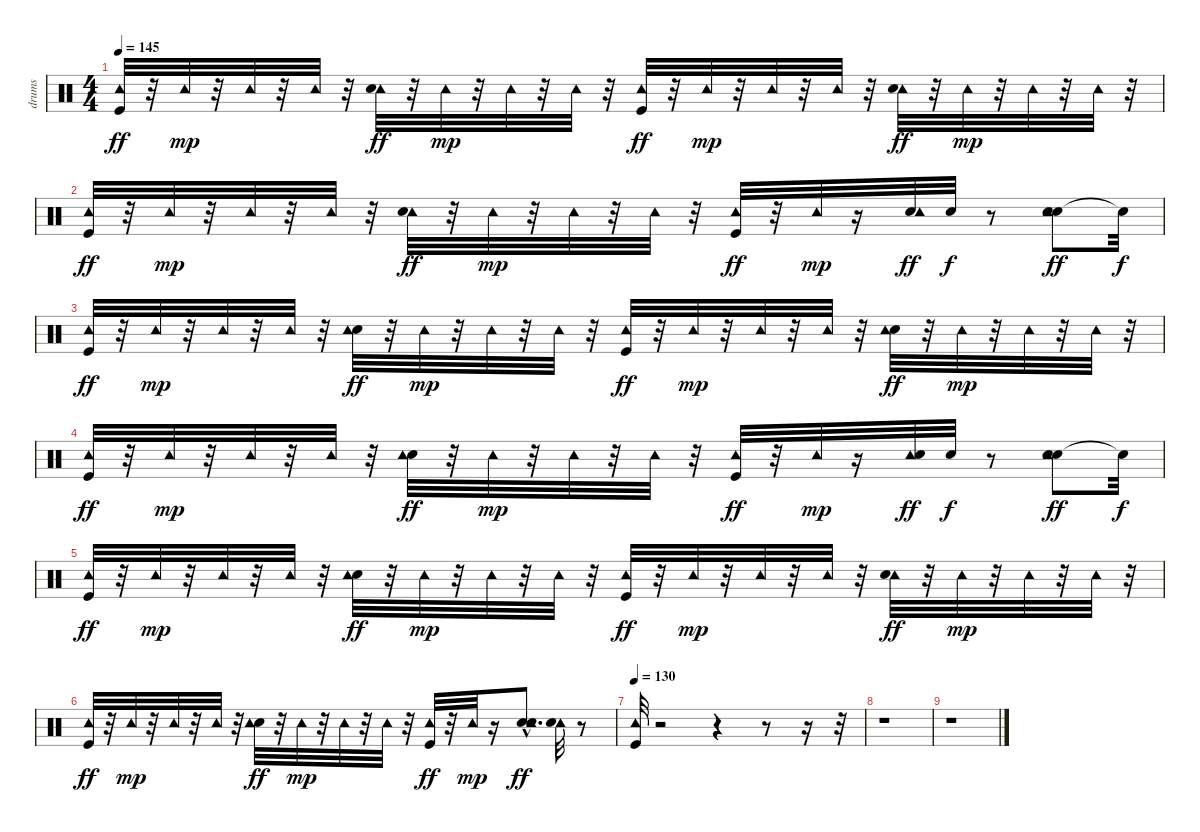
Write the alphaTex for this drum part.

\track ("drums" "drums") {instrument percussion}
\staff {score}
\articulation defaults
\ts (4 4)
\tempo 145
\clef neutral
\ks c
("Tambourine (hit)" "Kick (hit)").32{dy ff} r.32 "Tambourine (hit)".32{dy mp} r.32 "Tambourine (hit)".32 r.32 "Tambourine (hit)".32 r.32 ("Tambourine (hit)" "Snare (hit) 2").32{dy ff} r.32 "Tambourine (hit)".32{dy mp} r.32 "Tambourine (hit)".32 r.32 "Tambourine (hit)".32 r.32 ("Kick (hit)" "Tambourine (hit)").32{dy ff} r.32 "Tambourine (hit)".32{dy mp} r.32 "Tambourine (hit)".32 r.32 "Tambourine (hit)".32 r.32 ("Tambourine (hit)" "Snare (hit) 2").32{dy ff} r.32 "Tambourine (hit)".32{dy mp} r.32 "Tambourine (hit)".32 r.32 "Tambourine (hit)".32 r.32 |
("Kick (hit)" "Tambourine (hit)").32{dy ff} r.32 "Tambourine (hit)".32{dy mp} r.32 "Tambourine (hit)".32 r.32 "Tambourine (hit)".32 r.32 ("Tambourine (hit)" "Snare (hit) 2").32{dy ff} r.32 "Tambourine (hit)".32{dy mp} r.32 "Tambourine (hit)".32 r.32 "Tambourine (hit)".32 r.32 ("Tambourine (hit)" "Kick (hit)").32{dy ff} r.32 "Tambourine (hit)".32{dy mp} r.16 ("Snare (hit) 2" "Tambourine (hit)").32{dy ff} "Snare (hit) 2".32{dy f} r.8 ("Snare (hit) 2" "Tambourine (hit)" "Snare (hit) 2").8{dy ff} "Snare (hit)"{t}.32{dy f} |
("Kick (hit)" "Tambourine (hit)").32{dy ff} r.32 "Tambourine (hit)".32{dy mp} r.32 "Tambourine (hit)".32 r.32 "Tambourine (hit)".32 r.32 ("Snare (hit) 2" "Tambourine (hit)").32{dy ff} r.32 "Tambourine (hit)".32{dy mp} r.32 "Tambourine (hit)".32 r.32 "Tambourine (hit)".32 r.32 ("Tambourine (hit)" "Kick (hit)").32{dy ff} r.32 "Tambourine (hit)".32{dy mp} r.32 "Tambourine (hit)".32 r.32 "Tambourine (hit)".32 r.32 ("Snare (hit) 2" "Tambourine (hit)").32{dy ff} r.32 "Tambourine (hit)".32{dy mp} r.32 "Tambourine (hit)".32 r.32 "Tambourine (hit)".32 r.32 |
("Kick (hit)" "Tambourine (hit)").32{dy ff} r.32 "Tambourine (hit)".32{dy mp} r.32 "Tambourine (hit)".32 r.32 "Tambourine (hit)".32 r.32 ("Snare (hit) 2" "Tambourine (hit)").32{dy ff} r.32 "Tambourine (hit)".32{dy mp} r.32 "Tambourine (hit)".32 r.32 "Tambourine (hit)".32 r.32 ("Tambourine (hit)" "Kick (hit)").32{dy ff} r.32 "Tambourine (hit)".32{dy mp} r.16 ("Tambourine (hit)" "Snare (hit) 2").32{dy ff} "Snare (hit) 2".32{dy f} r.8 ("Snare (hit) 2" "Tambourine (hit)" "Snare (hit) 2").8{dy ff} "Snare (hit)"{t}.32{dy f} |
("Tambourine (hit)" "Kick (hit)").32{dy ff} r.32 "Tambourine (hit)".32{dy mp} r.32 "Tambourine (hit)".32 r.32 "Tambourine (hit)".32 r.32 ("Snare (hit) 2" "Tambourine (hit)").32{dy ff} r.32 "Tambourine (hit)".32{dy mp} r.32 "Tambourine (hit)".32 r.32 "Tambourine (hit)".32 r.32 ("Tambourine (hit)" "Kick (hit)").32{dy ff} r.32 "Tambourine (hit)".32{dy mp} r.32 "Tambourine (hit)".32 r.32 "Tambourine (hit)".32 r.32 ("Tambourine (hit)" "Snare (hit) 2").32{dy ff} r.32 "Tambourine (hit)".32{dy mp} r.32 "Tambourine (hit)".32 r.32 "Tambourine (hit)".32 r.32 |
("Kick (hit)" "Tambourine (hit)").32{dy ff} r.32 "Tambourine (hit)".32{dy mp} r.32 "Tambourine (hit)".32 r.32 "Tambourine (hit)".32 r.32 ("Snare (hit) 2" "Tambourine (hit)").32{dy ff} r.32 "Tambourine (hit)".32{dy mp} r.32 "Tambourine (hit)".32 r.32 "Tambourine (hit)".32 r.32 ("Tambourine (hit)" "Kick (hit)").32{dy ff} r.32 "Tambourine (hit)".32{dy mp} r.16 ("Snare (hit) 2"{hac} "Tambourine (hit)" "Snare (hit) 2").8{d dy ff} ("Tambourine (hit)" "Snare (hit) 2").32 r.8 |
\tempo 130
("Kick (hit)" "Tambourine (hit)").32 r.2 r.4 r.8 r.16 r.32 |
r.1 |
r.1
